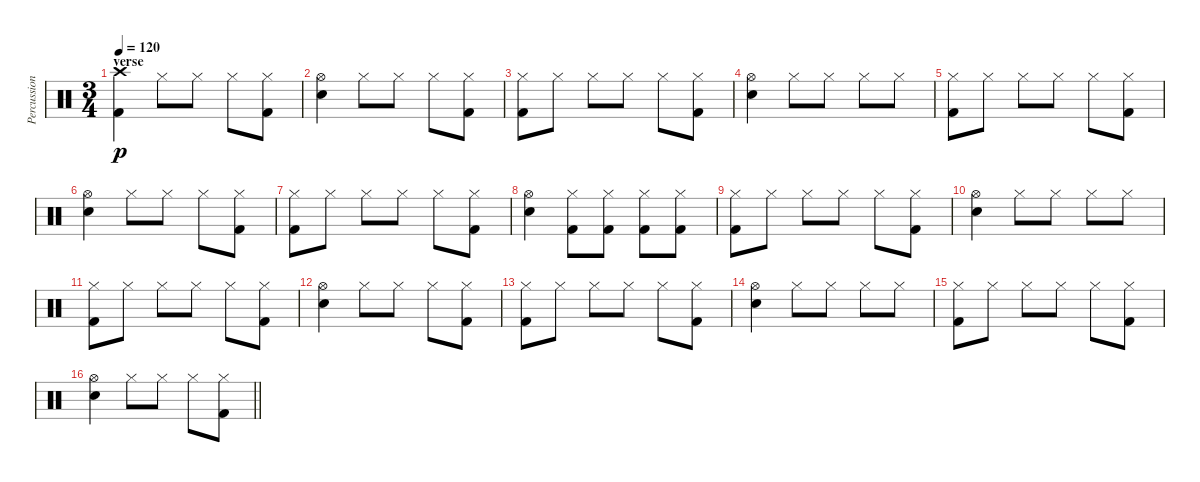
\track ("Percussion" "Percussion") {instrument percussion}
\staff {score}
\articulation defaults
\ts (3 4)
\section ("" "verse")
\tempo 120
\clef neutral
\ks c
("Crash high (hit)" "Kick (hit) 2").4{dy p} "Hi-Hat (closed)".8 "Hi-Hat (closed)".8 "Hi-Hat (closed)".8 ("Hi-Hat (closed)" "Kick (hit) 2").8 |
("Hi-Hat (open)" "Snare (hit) 2").4 "Hi-Hat (closed)".8 "Hi-Hat (closed)".8 "Hi-Hat (closed)".8 ("Hi-Hat (closed)" "Kick (hit) 2").8 |
("Hi-Hat (closed)" "Kick (hit) 2").8 "Hi-Hat (closed)".8 "Hi-Hat (closed)".8 "Hi-Hat (closed)".8 "Hi-Hat (closed)".8 ("Hi-Hat (closed)" "Kick (hit) 2").8 |
("Hi-Hat (open)" "Snare (hit) 2").4 "Hi-Hat (closed)".8 "Hi-Hat (closed)".8 "Hi-Hat (closed)".8 "Hi-Hat (closed)".8 |
("Hi-Hat (closed)" "Kick (hit) 2").8 "Hi-Hat (closed)".8 "Hi-Hat (closed)".8 "Hi-Hat (closed)".8 "Hi-Hat (closed)".8 ("Hi-Hat (closed)" "Kick (hit) 2").8 |
("Hi-Hat (open)" "Snare (hit) 2").4 "Hi-Hat (closed)".8 "Hi-Hat (closed)".8 "Hi-Hat (closed)".8 ("Hi-Hat (closed)" "Kick (hit) 2").8 |
("Hi-Hat (closed)" "Kick (hit) 2").8 "Hi-Hat (closed)".8 "Hi-Hat (closed)".8 "Hi-Hat (closed)".8 "Hi-Hat (closed)".8 ("Hi-Hat (closed)" "Kick (hit) 2").8 |
("Hi-Hat (open)" "Snare (hit) 2").4 ("Hi-Hat (closed)" "Kick (hit) 2").8 ("Hi-Hat (closed)" "Kick (hit) 2").8 ("Hi-Hat (closed)" "Kick (hit) 2").8 ("Hi-Hat (closed)" "Kick (hit) 2").8 |
("Hi-Hat (closed)" "Kick (hit) 2").8 "Hi-Hat (closed)".8 "Hi-Hat (closed)".8 "Hi-Hat (closed)".8 "Hi-Hat (closed)".8 ("Hi-Hat (closed)" "Kick (hit) 2").8 |
("Hi-Hat (open)" "Snare (hit) 2").4 "Hi-Hat (closed)".8 "Hi-Hat (closed)".8 "Hi-Hat (closed)".8 "Hi-Hat (closed)".8 |
("Hi-Hat (closed)" "Kick (hit) 2").8 "Hi-Hat (closed)".8 "Hi-Hat (closed)".8 "Hi-Hat (closed)".8 "Hi-Hat (closed)".8 ("Hi-Hat (closed)" "Kick (hit) 2").8 |
("Hi-Hat (open)" "Snare (hit) 2").4 "Hi-Hat (closed)".8 "Hi-Hat (closed)".8 "Hi-Hat (closed)".8 ("Hi-Hat (closed)" "Kick (hit) 2").8 |
("Hi-Hat (closed)" "Kick (hit) 2").8 "Hi-Hat (closed)".8 "Hi-Hat (closed)".8 "Hi-Hat (closed)".8 "Hi-Hat (closed)".8 ("Hi-Hat (closed)" "Kick (hit) 2").8 |
("Hi-Hat (open)" "Snare (hit) 2").4 "Hi-Hat (closed)".8 "Hi-Hat (closed)".8 "Hi-Hat (closed)".8 "Hi-Hat (closed)".8 |
("Hi-Hat (closed)" "Kick (hit) 2").8 "Hi-Hat (closed)".8 "Hi-Hat (closed)".8 "Hi-Hat (closed)".8 "Hi-Hat (closed)".8 ("Hi-Hat (closed)" "Kick (hit) 2").8 |
\barLineRight lightlight
("Hi-Hat (open)" "Snare (hit) 2").4 "Hi-Hat (closed)".8 "Hi-Hat (closed)".8 "Hi-Hat (closed)".8 ("Hi-Hat (closed)" "Kick (hit) 2").8
